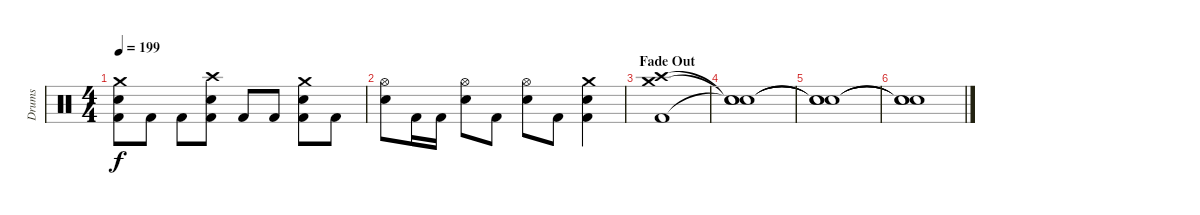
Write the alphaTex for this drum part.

\track ("Drums" "Drums") {instrument percussion}
\staff {score}
\articulation defaults
\ts (4 4)
\section ("" "")
\tempo 199
\clef neutral
\ks c
("Kick (hit) 2" "Snare (hit) 2" "Crash medium (hit)").8{dy f} "Kick (hit) 2".8 "Kick (hit) 2".8 ("Kick (hit) 2" "Snare (hit) 2" "Crash high (hit)").8 "Kick (hit) 2".8 "Kick (hit) 2".8 ("Kick (hit) 2" "Snare (hit) 2" "Crash medium (hit)").8 "Kick (hit) 2".8 |
("Snare (hit) 2" "Hi-Hat (open)").8 "Kick (hit) 2".16 "Kick (hit) 2".16 ("Snare (hit) 2" "Hi-Hat (open)").8 "Kick (hit) 2".8 ("Snare (hit) 2" "Hi-Hat (open)").8 "Kick (hit) 2".8 ("Kick (hit) 2" "Snare (hit) 2" "Crash medium (hit)").4 |
\section ("" "Fade Out")
("Kick (hit) 2" "Crash medium (hit)" "Crash high (hit)").1 |
("Snare (hit)"{t} "Snare (hit)"{t} "Snare (hit)"{t}).1 |
("Snare (hit)"{t} "Snare (hit)"{t} "Snare (hit)"{t}).1 |
("Snare (hit)"{t} "Snare (hit)"{t} "Snare (hit)"{t}).1
